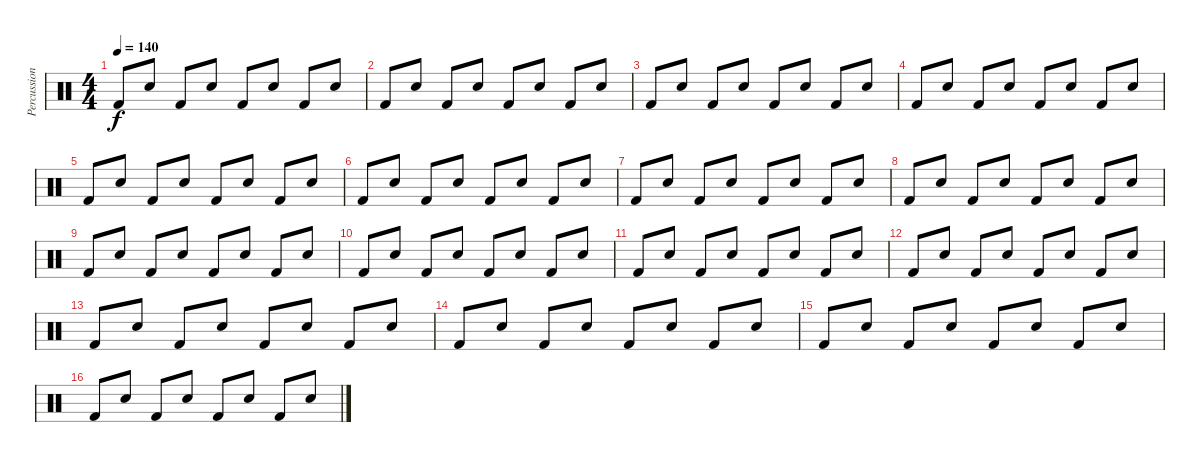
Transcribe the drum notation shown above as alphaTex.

\track ("Percussion" "Percussion") {instrument percussion}
\staff {score}
\articulation defaults
\ts (4 4)
\tempo 140
\clef neutral
\ks c "Kick (hit) 2".8{dy f} "Electric Snare (hit)".8 "Kick (hit) 2".8 "Electric Snare (hit)".8 "Kick (hit) 2".8 "Electric Snare (hit)".8 "Kick (hit) 2".8 "Electric Snare (hit)".8
|
"Kick (hit) 2".8 "Electric Snare (hit)".8 "Kick (hit) 2".8 "Electric Snare (hit)".8 "Kick (hit) 2".8 "Electric Snare (hit)".8 "Kick (hit) 2".8 "Electric Snare (hit)".8 |
"Kick (hit) 2".8 "Electric Snare (hit)".8 "Kick (hit) 2".8 "Electric Snare (hit)".8 "Kick (hit) 2".8 "Electric Snare (hit)".8 "Kick (hit) 2".8 "Electric Snare (hit)".8 |
"Kick (hit) 2".8 "Electric Snare (hit)".8 "Kick (hit) 2".8 "Electric Snare (hit)".8 "Kick (hit) 2".8 "Electric Snare (hit)".8 "Kick (hit) 2".8 "Electric Snare (hit)".8 |
"Kick (hit) 2".8 "Electric Snare (hit)".8 "Kick (hit) 2".8 "Electric Snare (hit)".8 "Kick (hit) 2".8 "Electric Snare (hit)".8 "Kick (hit) 2".8 "Electric Snare (hit)".8 |
"Kick (hit) 2".8 "Electric Snare (hit)".8 "Kick (hit) 2".8 "Electric Snare (hit)".8 "Kick (hit) 2".8 "Electric Snare (hit)".8 "Kick (hit) 2".8 "Electric Snare (hit)".8 |
"Kick (hit) 2".8 "Electric Snare (hit)".8 "Kick (hit) 2".8 "Electric Snare (hit)".8 "Kick (hit) 2".8 "Electric Snare (hit)".8 "Kick (hit) 2".8 "Electric Snare (hit)".8 |
"Kick (hit) 2".8 "Electric Snare (hit)".8 "Kick (hit) 2".8 "Electric Snare (hit)".8 "Kick (hit) 2".8 "Electric Snare (hit)".8 "Kick (hit) 2".8 "Electric Snare (hit)".8 |
"Kick (hit) 2".8 "Electric Snare (hit)".8 "Kick (hit) 2".8 "Electric Snare (hit)".8 "Kick (hit) 2".8 "Electric Snare (hit)".8 "Kick (hit) 2".8 "Electric Snare (hit)".8 |
"Kick (hit) 2".8 "Electric Snare (hit)".8 "Kick (hit) 2".8 "Electric Snare (hit)".8 "Kick (hit) 2".8 "Electric Snare (hit)".8 "Kick (hit) 2".8 "Electric Snare (hit)".8 |
"Kick (hit) 2".8 "Electric Snare (hit)".8 "Kick (hit) 2".8 "Electric Snare (hit)".8 "Kick (hit) 2".8 "Electric Snare (hit)".8 "Kick (hit) 2".8 "Electric Snare (hit)".8 |
"Kick (hit) 2".8 "Electric Snare (hit)".8 "Kick (hit) 2".8 "Electric Snare (hit)".8 "Kick (hit) 2".8 "Electric Snare (hit)".8 "Kick (hit) 2".8 "Electric Snare (hit)".8 |
"Kick (hit) 2".8 "Electric Snare (hit)".8 "Kick (hit) 2".8 "Electric Snare (hit)".8 "Kick (hit) 2".8 "Electric Snare (hit)".8 "Kick (hit) 2".8 "Electric Snare (hit)".8 |
"Kick (hit) 2".8 "Electric Snare (hit)".8 "Kick (hit) 2".8 "Electric Snare (hit)".8 "Kick (hit) 2".8 "Electric Snare (hit)".8 "Kick (hit) 2".8 "Electric Snare (hit)".8 |
"Kick (hit) 2".8 "Electric Snare (hit)".8 "Kick (hit) 2".8 "Electric Snare (hit)".8 "Kick (hit) 2".8 "Electric Snare (hit)".8 "Kick (hit) 2".8 "Electric Snare (hit)".8 |
"Kick (hit) 2".8 "Electric Snare (hit)".8 "Kick (hit) 2".8 "Electric Snare (hit)".8 "Kick (hit) 2".8 "Electric Snare (hit)".8 "Kick (hit) 2".8 "Electric Snare (hit)".8
